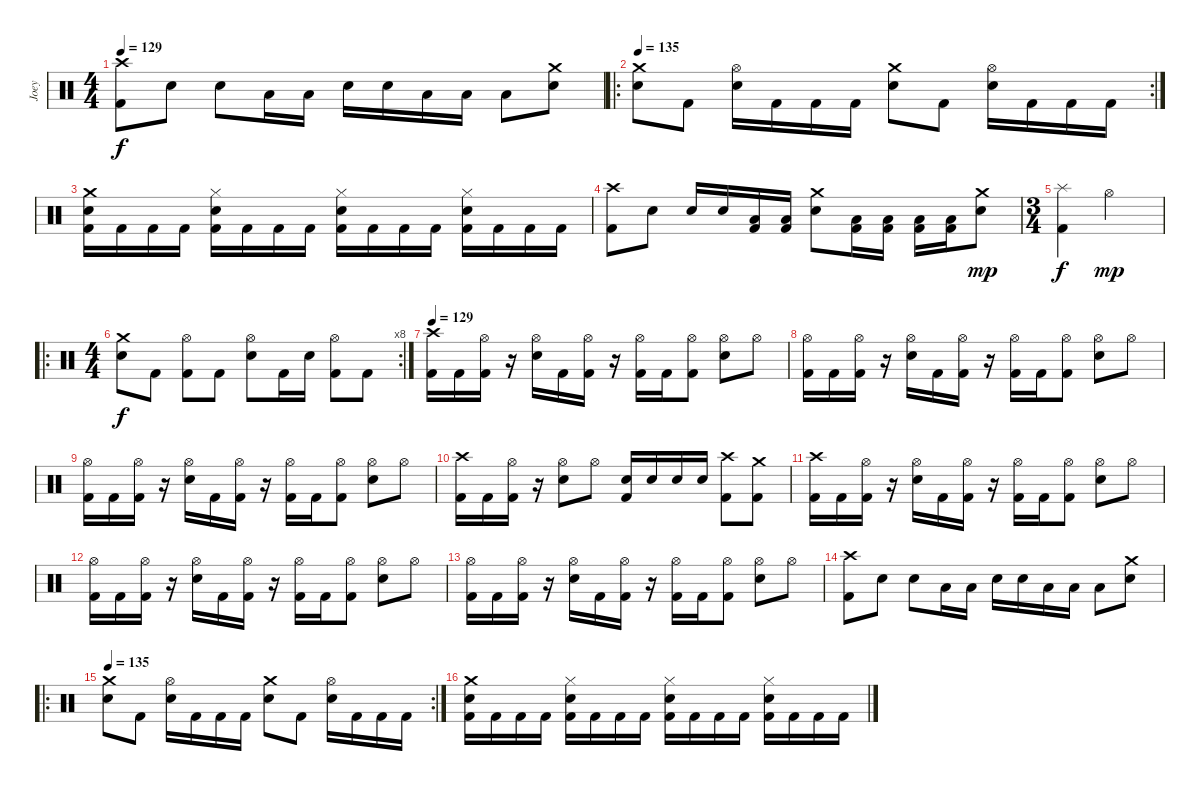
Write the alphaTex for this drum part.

\track ("Joey" "Joey") {instrument percussion}
\staff {score}
\articulation defaults
\ts (4 4)
\tempo 129
\clef neutral
\ks c
("Crash high (hit)" "Kick (hit) 2").8{dy f} "Electric Snare (hit)".8 "Electric Snare (hit)".8 "Low Tom (hit)".16 "Low Tom (hit)".16 "Electric Snare (hit)".16 "Electric Snare (hit)".16 "Low Tom (hit)".16 "Low Tom (hit)".16 "Low Tom (hit)".8 ("Crash medium (hit)" "Electric Snare (hit)").8 |
\ro
\rc 2
\tempo 135
("Crash medium (hit)" "Electric Snare (hit)").8 "Kick (hit) 2".8 ("Hi-Hat (open)" "Electric Snare (hit)").16 "Kick (hit) 2".16 "Kick (hit) 2".16 "Kick (hit) 2".16 ("Crash medium (hit)" "Electric Snare (hit)").8 "Kick (hit) 2".8 ("Hi-Hat (open)" "Electric Snare (hit)").16 "Kick (hit) 2".16 "Kick (hit) 2".16 "Kick (hit) 2".16 |
("Crash medium (hit)" "Electric Snare (hit)" "Kick (hit) 2").16 "Kick (hit) 2".16 "Kick (hit) 2".16 "Kick (hit) 2".16 ("Hi-Hat (closed)" "Electric Snare (hit)" "Kick (hit) 2").16 "Kick (hit) 2".16 "Kick (hit) 2".16 "Kick (hit) 2".16 ("Hi-Hat (closed)" "Electric Snare (hit)" "Kick (hit) 2").16 "Kick (hit) 2".16 "Kick (hit) 2".16 "Kick (hit) 2".16 ("Hi-Hat (closed)" "Electric Snare (hit)" "Kick (hit) 2").16 "Kick (hit) 2".16 "Kick (hit) 2".16 "Kick (hit) 2".16 |
("Crash high (hit)" "Kick (hit) 2").8 "Electric Snare (hit)".8 "Electric Snare (hit)".16 "Electric Snare (hit)".16 ("Low Floor Tom (hit)" "Kick (hit) 2").16 ("Low Floor Tom (hit)" "Kick (hit) 2").16 ("Crash medium (hit)" "Electric Snare (hit)").8 ("Low Floor Tom (hit)" "Kick (hit) 2").16 ("Low Floor Tom (hit)" "Kick (hit) 2").16 ("Low Floor Tom (hit)" "Kick (hit) 2").16 ("Low Floor Tom (hit)" "Kick (hit) 2").16 ("Crash medium (hit)" "Electric Snare (hit)").8{dy mp} |
\ts (3 4)
("Splash (hit)" "Kick (hit) 2").4{dy f} "Hi-Hat (open)".2{dy mp} |
\ro
\rc 8
\ts (4 4)
("Crash medium (hit)" "Electric Snare (hit)").8{dy f} "Kick (hit) 2".8 ("Hi-Hat (open)" "Kick (hit) 2").8 "Kick (hit) 2".8 ("Hi-Hat (open)" "Electric Snare (hit)").8 "Kick (hit) 2".16 "Electric Snare (hit)".16 ("Hi-Hat (open)" "Kick (hit) 2").8 "Kick (hit) 2".8 |
\tempo 129
("Crash high (hit)" "Kick (hit) 2").16 "Kick (hit) 2".16 ("Hi-Hat (open)" "Kick (hit) 2").16 r.16 ("Hi-Hat (open)" "Electric Snare (hit)").16 "Kick (hit) 2".16 ("Hi-Hat (open)" "Kick (hit) 2").16 r.16 ("Hi-Hat (open)" "Kick (hit) 2").16 "Kick (hit) 2".16 ("Hi-Hat (open)" "Kick (hit) 2").8 ("Hi-Hat (open)" "Electric Snare (hit)").8 "Hi-Hat (open)".8 |
("Hi-Hat (open)" "Kick (hit) 2").16 "Kick (hit) 2".16 ("Hi-Hat (open)" "Kick (hit) 2").16 r.16 ("Hi-Hat (open)" "Electric Snare (hit)").16 "Kick (hit) 2".16 ("Hi-Hat (open)" "Kick (hit) 2").16 r.16 ("Hi-Hat (open)" "Kick (hit) 2").16 "Kick (hit) 2".16 ("Hi-Hat (open)" "Kick (hit) 2").8 ("Hi-Hat (open)" "Electric Snare (hit)").8 "Hi-Hat (open)".8 |
("Hi-Hat (open)" "Kick (hit) 2").16 "Kick (hit) 2".16 ("Hi-Hat (open)" "Kick (hit) 2").16 r.16 ("Hi-Hat (open)" "Electric Snare (hit)").16 "Kick (hit) 2".16 ("Hi-Hat (open)" "Kick (hit) 2").16 r.16 ("Hi-Hat (open)" "Kick (hit) 2").16 "Kick (hit) 2".16 ("Hi-Hat (open)" "Kick (hit) 2").8 ("Hi-Hat (open)" "Electric Snare (hit)").8 "Hi-Hat (open)".8 |
("Crash high (hit)" "Kick (hit) 2").16 "Kick (hit) 2".16 ("Hi-Hat (open)" "Kick (hit) 2").16 r.16 ("Hi-Hat (open)" "Electric Snare (hit)").8 "Hi-Hat (open)".8 ("Electric Snare (hit)" "Kick (hit) 2").16 "Electric Snare (hit)".16 "Electric Snare (hit)".16 "Electric Snare (hit)".16 ("Crash high (hit)" "Kick (hit) 2").8 ("Crash medium (hit)" "Kick (hit) 2").8 |
("Crash high (hit)" "Kick (hit) 2").16 "Kick (hit) 2".16 ("Hi-Hat (open)" "Kick (hit) 2").16 r.16 ("Hi-Hat (open)" "Electric Snare (hit)").16 "Kick (hit) 2".16 ("Hi-Hat (open)" "Kick (hit) 2").16 r.16 ("Hi-Hat (open)" "Kick (hit) 2").16 "Kick (hit) 2".16 ("Hi-Hat (open)" "Kick (hit) 2").8 ("Hi-Hat (open)" "Electric Snare (hit)").8 "Hi-Hat (open)".8 |
("Hi-Hat (open)" "Kick (hit) 2").16 "Kick (hit) 2".16 ("Hi-Hat (open)" "Kick (hit) 2").16 r.16 ("Hi-Hat (open)" "Electric Snare (hit)").16 "Kick (hit) 2".16 ("Hi-Hat (open)" "Kick (hit) 2").16 r.16 ("Hi-Hat (open)" "Kick (hit) 2").16 "Kick (hit) 2".16 ("Hi-Hat (open)" "Kick (hit) 2").8 ("Hi-Hat (open)" "Electric Snare (hit)").8 "Hi-Hat (open)".8 |
("Hi-Hat (open)" "Kick (hit) 2").16 "Kick (hit) 2".16 ("Hi-Hat (open)" "Kick (hit) 2").16 r.16 ("Hi-Hat (open)" "Electric Snare (hit)").16 "Kick (hit) 2".16 ("Hi-Hat (open)" "Kick (hit) 2").16 r.16 ("Hi-Hat (open)" "Kick (hit) 2").16 "Kick (hit) 2".16 ("Hi-Hat (open)" "Kick (hit) 2").8 ("Hi-Hat (open)" "Electric Snare (hit)").8 "Hi-Hat (open)".8 |
("Crash high (hit)" "Kick (hit) 2").8 "Electric Snare (hit)".8 "Electric Snare (hit)".8 "Low Tom (hit)".16 "Low Tom (hit)".16 "Electric Snare (hit)".16 "Electric Snare (hit)".16 "Low Tom (hit)".16 "Low Tom (hit)".16 "Low Tom (hit)".8 ("Crash medium (hit)" "Electric Snare (hit)").8 |
\ro
\rc 2
\tempo 135
("Crash medium (hit)" "Electric Snare (hit)").8 "Kick (hit) 2".8 ("Hi-Hat (open)" "Electric Snare (hit)").16 "Kick (hit) 2".16 "Kick (hit) 2".16 "Kick (hit) 2".16 ("Crash medium (hit)" "Electric Snare (hit)").8 "Kick (hit) 2".8 ("Hi-Hat (open)" "Electric Snare (hit)").16 "Kick (hit) 2".16 "Kick (hit) 2".16 "Kick (hit) 2".16 |
("Crash medium (hit)" "Electric Snare (hit)" "Kick (hit) 2").16 "Kick (hit) 2".16 "Kick (hit) 2".16 "Kick (hit) 2".16 ("Hi-Hat (closed)" "Electric Snare (hit)" "Kick (hit) 2").16 "Kick (hit) 2".16 "Kick (hit) 2".16 "Kick (hit) 2".16 ("Hi-Hat (closed)" "Electric Snare (hit)" "Kick (hit) 2").16 "Kick (hit) 2".16 "Kick (hit) 2".16 "Kick (hit) 2".16 ("Hi-Hat (closed)" "Electric Snare (hit)" "Kick (hit) 2").16 "Kick (hit) 2".16 "Kick (hit) 2".16 "Kick (hit) 2".16
